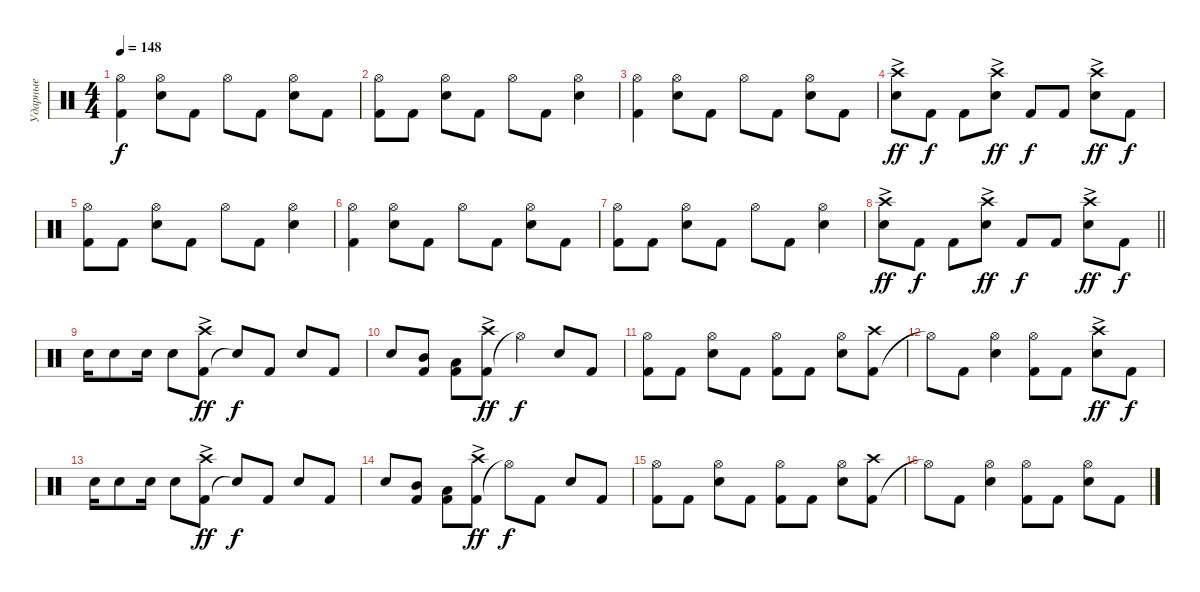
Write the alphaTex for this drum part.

\track ("Ударные" "Ударные") {instrument percussion}
\staff {score}
\articulation defaults
\ts (4 4)
\tempo 148
\clef neutral
\ks c
("Kick (hit) 2" "Hi-Hat (open)").4{dy f} ("Snare (hit) 2" "Hi-Hat (open)").8 "Kick (hit) 2".8 "Hi-Hat (open)".8 "Kick (hit) 2".8 ("Snare (hit) 2" "Hi-Hat (open)").8 "Kick (hit) 2".8 |
("Kick (hit) 2" "Hi-Hat (open)").8 "Kick (hit) 2".8 ("Snare (hit) 2" "Hi-Hat (open)").8 "Kick (hit) 2".8 "Hi-Hat (open)".8 "Kick (hit) 2".8 ("Snare (hit) 2" "Hi-Hat (open)").4 |
("Kick (hit) 2" "Hi-Hat (open)").4 ("Snare (hit) 2" "Hi-Hat (open)").8 "Kick (hit) 2".8 "Hi-Hat (open)".8 "Kick (hit) 2".8 ("Snare (hit) 2" "Hi-Hat (open)").8 "Kick (hit) 2".8 |
("Snare (hit) 2" "Crash high (hit)"{ac}).8{dy ff} "Kick (hit) 2".8{dy f} "Kick (hit) 2".8 ("Snare (hit) 2" "Crash high (hit)"{ac}).8{dy ff} "Kick (hit) 2".8{dy f} "Kick (hit) 2".8 ("Snare (hit) 2" "Crash high (hit)"{ac}).8{dy ff} "Kick (hit) 2".8{dy f} |
("Kick (hit) 2" "Hi-Hat (open)").8 "Kick (hit) 2".8 ("Snare (hit) 2" "Hi-Hat (open)").8 "Kick (hit) 2".8 "Hi-Hat (open)".8 "Kick (hit) 2".8 ("Snare (hit) 2" "Hi-Hat (open)").4 |
("Kick (hit) 2" "Hi-Hat (open)").4 ("Snare (hit) 2" "Hi-Hat (open)").8 "Kick (hit) 2".8 "Hi-Hat (open)".8 "Kick (hit) 2".8 ("Snare (hit) 2" "Hi-Hat (open)").8 "Kick (hit) 2".8 |
("Kick (hit) 2" "Hi-Hat (open)").8 "Kick (hit) 2".8 ("Snare (hit) 2" "Hi-Hat (open)").8 "Kick (hit) 2".8 "Hi-Hat (open)".8 "Kick (hit) 2".8 ("Snare (hit) 2" "Hi-Hat (open)").4 |
\barLineRight lightlight
("Snare (hit) 2" "Crash high (hit)"{ac}).8{dy ff} "Kick (hit) 2".8{dy f} "Kick (hit) 2".8 ("Snare (hit) 2" "Crash high (hit)"{ac}).8{dy ff} "Kick (hit) 2".8{dy f} "Kick (hit) 2".8 ("Snare (hit) 2" "Crash high (hit)"{ac}).8{dy ff} "Kick (hit) 2".8{dy f} |
"Snare (hit) 2".16 "Electric Snare (hit)".8 "Snare (hit) 2".16 "Electric Snare (hit)".8 ("Kick (hit) 2" "Crash high (hit)"{ac}).8{dy ff} "Snare (hit)"{t}.8{dy f} "Kick (hit) 2".8 "Snare (hit) 2".8 "Kick (hit) 2".8 |
"Snare (hit) 2".8 ("Kick (hit) 2" "Mid Tom (hit)").8 ("Kick (hit) 2" "Low Tom (hit)").8 ("Kick (hit) 2" "Crash high (hit)"{ac}).8{dy ff} "Hi-Hat (open)"{t}.4{dy f} "Snare (hit) 2".8 "Kick (hit) 2".8 |
("Kick (hit) 2" "Hi-Hat (open)").8 "Kick (hit) 2".8 ("Snare (hit) 2" "Hi-Hat (open)").8 "Kick (hit) 2".8 ("Kick (hit) 2" "Hi-Hat (open)").8 "Kick (hit) 2".8 ("Snare (hit) 2" "Hi-Hat (open)").8 ("Kick (hit) 2" "Crash high (hit)").8 |
"Hi-Hat (open)"{t}.8 "Kick (hit) 2".8 ("Snare (hit) 2" "Hi-Hat (open)").4 ("Kick (hit) 2" "Hi-Hat (open)").8 "Kick (hit) 2".8 ("Snare (hit) 2" "Crash high (hit)"{ac}).8{dy ff} "Kick (hit) 2".8{dy f} |
"Snare (hit) 2".16 "Electric Snare (hit)".8 "Snare (hit) 2".16 "Electric Snare (hit)".8 ("Kick (hit) 2" "Crash high (hit)"{ac}).8{dy ff} "Snare (hit)"{t}.8{dy f} "Kick (hit) 2".8 "Snare (hit) 2".8 "Kick (hit) 2".8 |
"Snare (hit) 2".8 ("Kick (hit) 2" "Mid Tom (hit)").8 ("Kick (hit) 2" "Low Tom (hit)").8 ("Kick (hit) 2" "Crash high (hit)"{ac}).8{dy ff} "Hi-Hat (open)"{t}.8{dy f} "Kick (hit) 2".8 "Snare (hit) 2".8 "Kick (hit) 2".8 |
("Kick (hit) 2" "Hi-Hat (open)").8 "Kick (hit) 2".8 ("Snare (hit) 2" "Hi-Hat (open)").8 "Kick (hit) 2".8 ("Kick (hit) 2" "Hi-Hat (open)").8 "Kick (hit) 2".8 ("Snare (hit) 2" "Hi-Hat (open)").8 ("Kick (hit) 2" "Crash high (hit)").8 |
"Hi-Hat (open)"{t}.8 "Kick (hit) 2".8 ("Snare (hit) 2" "Hi-Hat (open)").4 ("Kick (hit) 2" "Hi-Hat (open)").8 "Kick (hit) 2".8 ("Snare (hit) 2" "Hi-Hat (open)").8 "Kick (hit) 2".8
